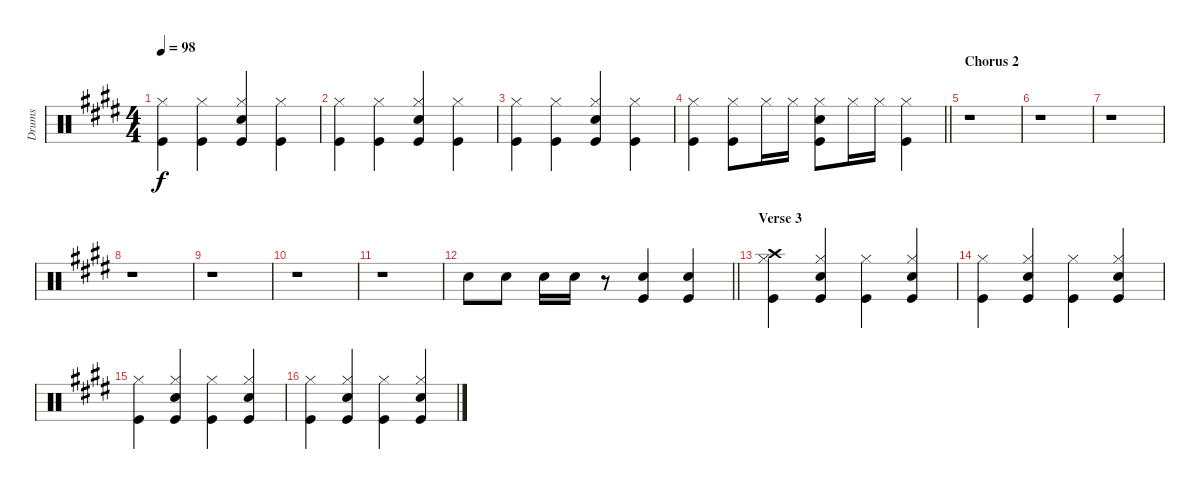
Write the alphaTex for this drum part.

\track ("Drums" "Drums") {instrument percussion}
\staff {score}
\articulation defaults
\ts (4 4)
\tempo 98
\clef neutral
\ks c#minor
("Kick (hit)" "Hi-Hat (closed)").4{dy f} ("Kick (hit)" "Hi-Hat (closed)").4 ("Kick (hit)" "Snare (hit) 2" "Hi-Hat (closed)").4 ("Kick (hit)" "Hi-Hat (closed)").4 |
("Kick (hit)" "Hi-Hat (closed)").4 ("Kick (hit)" "Hi-Hat (closed)").4 ("Kick (hit)" "Snare (hit) 2" "Hi-Hat (closed)").4 ("Kick (hit)" "Hi-Hat (closed)").4 |
("Kick (hit)" "Hi-Hat (closed)").4 ("Kick (hit)" "Hi-Hat (closed)").4 ("Kick (hit)" "Snare (hit) 2" "Hi-Hat (closed)").4 ("Kick (hit)" "Hi-Hat (closed)").4 |
\barLineRight lightlight
("Kick (hit)" "Hi-Hat (closed)").4 ("Kick (hit)" "Hi-Hat (closed)").8 "Hi-Hat (closed)".16 "Hi-Hat (closed)".16 ("Kick (hit)" "Snare (hit) 2" "Hi-Hat (closed)").8 "Hi-Hat (closed)".16 "Hi-Hat (closed)".16 ("Kick (hit)" "Hi-Hat (closed)").4 |
\section ("" "Chorus 2")
r.1 |
r.1 |
r.1 |
r.1 |
r.1 |
r.1 |
r.1 |
\barLineRight lightlight "Snare (hit) 2".8 "Snare (hit) 2".8 "Snare (hit) 2".16 "Snare (hit) 2".16
r.8 ("Kick (hit)" "Snare (hit) 2").4 ("Kick (hit)" "Snare (hit) 2").4 |
\section ("" "Verse 3")
("Kick (hit)" "Hi-Hat (closed)" "Crash high (hit)").4 ("Kick (hit)" "Snare (hit) 2" "Hi-Hat (closed)").4 ("Kick (hit)" "Hi-Hat (closed)").4 ("Kick (hit)" "Snare (hit) 2" "Hi-Hat (closed)").4 |
("Kick (hit)" "Hi-Hat (closed)").4 ("Kick (hit)" "Snare (hit) 2" "Hi-Hat (closed)").4 ("Kick (hit)" "Hi-Hat (closed)").4 ("Kick (hit)" "Snare (hit) 2" "Hi-Hat (closed)").4 |
("Kick (hit)" "Hi-Hat (closed)").4 ("Kick (hit)" "Snare (hit) 2" "Hi-Hat (closed)").4 ("Kick (hit)" "Hi-Hat (closed)").4 ("Kick (hit)" "Snare (hit) 2" "Hi-Hat (closed)").4 |
("Kick (hit)" "Hi-Hat (closed)").4 ("Kick (hit)" "Snare (hit) 2" "Hi-Hat (closed)").4 ("Kick (hit)" "Hi-Hat (closed)").4 ("Kick (hit)" "Snare (hit) 2" "Hi-Hat (closed)").4
